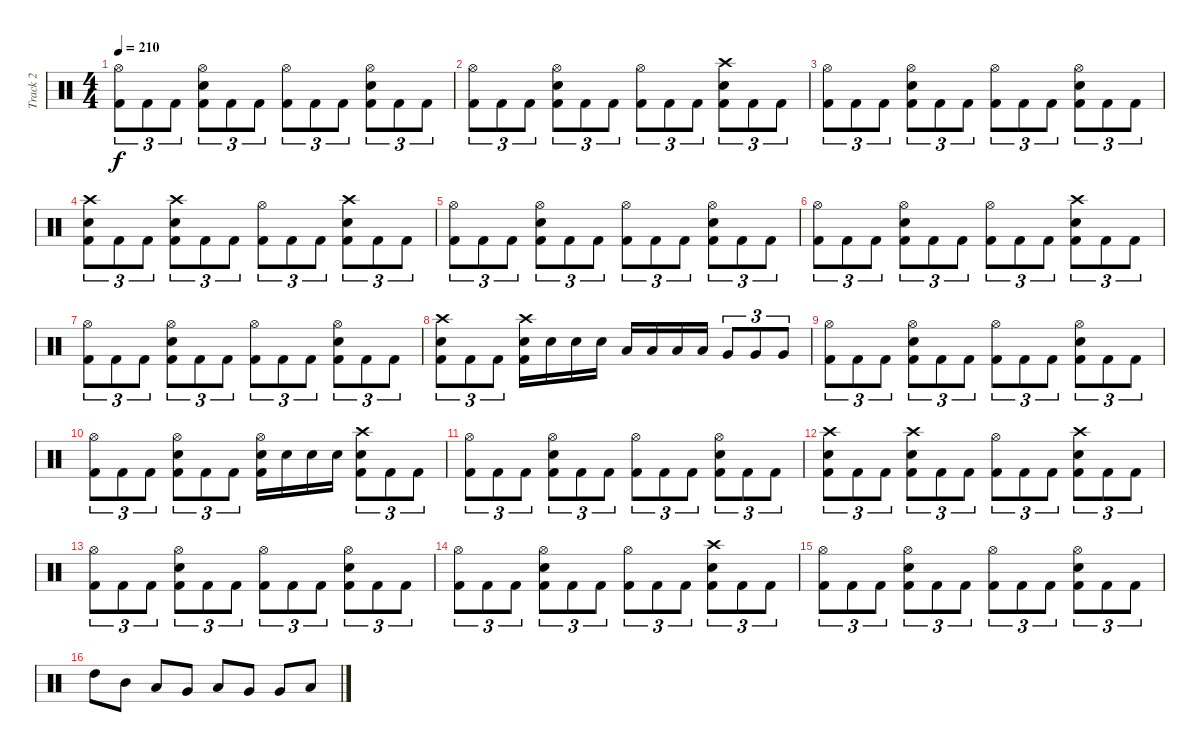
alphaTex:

\track ("Track 2" "Track 2") {instrument percussion}
\staff {score}
\articulation defaults
\ts (4 4)
\tempo 210
\clef neutral
\ks c
("Hi-Hat (open)" "Kick (hit) 2").8{tu (3 2) dy f} "Kick (hit) 2".8{tu (3 2)} "Kick (hit) 2".8{tu (3 2)} ("Hi-Hat (open)" "Snare (hit) 2" "Kick (hit) 2").8{tu (3 2)} "Kick (hit) 2".8{tu (3 2)} "Kick (hit) 2".8{tu (3 2)} ("Hi-Hat (open)" "Kick (hit) 2").8{tu (3 2)} "Kick (hit) 2".8{tu (3 2)} "Kick (hit) 2".8{tu (3 2)} ("Hi-Hat (open)" "Snare (hit) 2" "Kick (hit) 2").8{tu (3 2)} "Kick (hit) 2".8{tu (3 2)} "Kick (hit) 2".8{tu (3 2)} |
("Hi-Hat (open)" "Kick (hit) 2").8{tu (3 2)} "Kick (hit) 2".8{tu (3 2)} "Kick (hit) 2".8{tu (3 2)} ("Hi-Hat (open)" "Snare (hit) 2" "Kick (hit) 2").8{tu (3 2)} "Kick (hit) 2".8{tu (3 2)} "Kick (hit) 2".8{tu (3 2)} ("Hi-Hat (open)" "Kick (hit) 2").8{tu (3 2)} "Kick (hit) 2".8{tu (3 2)} "Kick (hit) 2".8{tu (3 2)} ("Crash high (hit)" "Snare (hit) 2" "Kick (hit) 2").8{tu (3 2)} "Kick (hit) 2".8{tu (3 2)} "Kick (hit) 2".8{tu (3 2)} |
("Hi-Hat (open)" "Kick (hit) 2").8{tu (3 2)} "Kick (hit) 2".8{tu (3 2)} "Kick (hit) 2".8{tu (3 2)} ("Hi-Hat (open)" "Snare (hit) 2" "Kick (hit) 2").8{tu (3 2)} "Kick (hit) 2".8{tu (3 2)} "Kick (hit) 2".8{tu (3 2)} ("Hi-Hat (open)" "Kick (hit) 2").8{tu (3 2)} "Kick (hit) 2".8{tu (3 2)} "Kick (hit) 2".8{tu (3 2)} ("Hi-Hat (open)" "Snare (hit) 2" "Kick (hit) 2").8{tu (3 2)} "Kick (hit) 2".8{tu (3 2)} "Kick (hit) 2".8{tu (3 2)} |
("Crash high (hit)" "Snare (hit) 2" "Kick (hit) 2").8{tu (3 2)} "Kick (hit) 2".8{tu (3 2)} "Kick (hit) 2".8{tu (3 2)} ("Crash high (hit)" "Snare (hit) 2" "Kick (hit) 2").8{tu (3 2)} "Kick (hit) 2".8{tu (3 2)} "Kick (hit) 2".8{tu (3 2)} ("Hi-Hat (open)" "Kick (hit) 2").8{tu (3 2)} "Kick (hit) 2".8{tu (3 2)} "Kick (hit) 2".8{tu (3 2)} ("Crash high (hit)" "Snare (hit) 2" "Kick (hit) 2").8{tu (3 2)} "Kick (hit) 2".8{tu (3 2)} "Kick (hit) 2".8{tu (3 2)} |
("Hi-Hat (open)" "Kick (hit) 2").8{tu (3 2)} "Kick (hit) 2".8{tu (3 2)} "Kick (hit) 2".8{tu (3 2)} ("Hi-Hat (open)" "Snare (hit) 2" "Kick (hit) 2").8{tu (3 2)} "Kick (hit) 2".8{tu (3 2)} "Kick (hit) 2".8{tu (3 2)} ("Hi-Hat (open)" "Kick (hit) 2").8{tu (3 2)} "Kick (hit) 2".8{tu (3 2)} "Kick (hit) 2".8{tu (3 2)} ("Hi-Hat (open)" "Snare (hit) 2" "Kick (hit) 2").8{tu (3 2)} "Kick (hit) 2".8{tu (3 2)} "Kick (hit) 2".8{tu (3 2)} |
("Hi-Hat (open)" "Kick (hit) 2").8{tu (3 2)} "Kick (hit) 2".8{tu (3 2)} "Kick (hit) 2".8{tu (3 2)} ("Hi-Hat (open)" "Snare (hit) 2" "Kick (hit) 2").8{tu (3 2)} "Kick (hit) 2".8{tu (3 2)} "Kick (hit) 2".8{tu (3 2)} ("Hi-Hat (open)" "Kick (hit) 2").8{tu (3 2)} "Kick (hit) 2".8{tu (3 2)} "Kick (hit) 2".8{tu (3 2)} ("Crash high (hit)" "Snare (hit) 2" "Kick (hit) 2").8{tu (3 2)} "Kick (hit) 2".8{tu (3 2)} "Kick (hit) 2".8{tu (3 2)} |
("Hi-Hat (open)" "Kick (hit) 2").8{tu (3 2)} "Kick (hit) 2".8{tu (3 2)} "Kick (hit) 2".8{tu (3 2)} ("Hi-Hat (open)" "Snare (hit) 2" "Kick (hit) 2").8{tu (3 2)} "Kick (hit) 2".8{tu (3 2)} "Kick (hit) 2".8{tu (3 2)} ("Hi-Hat (open)" "Kick (hit) 2").8{tu (3 2)} "Kick (hit) 2".8{tu (3 2)} "Kick (hit) 2".8{tu (3 2)} ("Hi-Hat (open)" "Snare (hit) 2" "Kick (hit) 2").8{tu (3 2)} "Kick (hit) 2".8{tu (3 2)} "Kick (hit) 2".8{tu (3 2)} |
("Crash high (hit)" "Snare (hit) 2" "Kick (hit) 2").8{tu (3 2)} "Kick (hit) 2".8{tu (3 2)} "Kick (hit) 2".8{tu (3 2)} ("Crash high (hit)" "Snare (hit) 2" "Kick (hit) 2").16 "Snare (hit) 2".16 "Snare (hit) 2".16 "Snare (hit) 2".16 "Low Tom (hit)".16 "Low Tom (hit)".16 "Low Tom (hit)".16 "Low Tom (hit)".16 "Very Low Tom (hit)".8{tu (3 2)} "Very Low Tom (hit)".8{tu (3 2)} "Very Low Tom (hit)".8{tu (3 2)} |
("Hi-Hat (open)" "Kick (hit) 2").8{tu (3 2)} "Kick (hit) 2".8{tu (3 2)} "Kick (hit) 2".8{tu (3 2)} ("Hi-Hat (open)" "Snare (hit) 2" "Kick (hit) 2").8{tu (3 2)} "Kick (hit) 2".8{tu (3 2)} "Kick (hit) 2".8{tu (3 2)} ("Hi-Hat (open)" "Kick (hit) 2").8{tu (3 2)} "Kick (hit) 2".8{tu (3 2)} "Kick (hit) 2".8{tu (3 2)} ("Hi-Hat (open)" "Snare (hit) 2" "Kick (hit) 2").8{tu (3 2)} "Kick (hit) 2".8{tu (3 2)} "Kick (hit) 2".8{tu (3 2)} |
("Hi-Hat (open)" "Kick (hit) 2").8{tu (3 2)} "Kick (hit) 2".8{tu (3 2)} "Kick (hit) 2".8{tu (3 2)} ("Hi-Hat (open)" "Snare (hit) 2" "Kick (hit) 2").8{tu (3 2)} "Kick (hit) 2".8{tu (3 2)} "Kick (hit) 2".8{tu (3 2)} ("Hi-Hat (open)" "Snare (hit) 2" "Kick (hit) 2").16 "Snare (hit) 2".16 "Snare (hit) 2".16 "Snare (hit) 2".16 ("Crash high (hit)" "Snare (hit) 2" "Kick (hit) 2").8{tu (3 2)} "Kick (hit) 2".8{tu (3 2)} "Kick (hit) 2".8{tu (3 2)} |
("Hi-Hat (open)" "Kick (hit) 2").8{tu (3 2)} "Kick (hit) 2".8{tu (3 2)} "Kick (hit) 2".8{tu (3 2)} ("Hi-Hat (open)" "Snare (hit) 2" "Kick (hit) 2").8{tu (3 2)} "Kick (hit) 2".8{tu (3 2)} "Kick (hit) 2".8{tu (3 2)} ("Hi-Hat (open)" "Kick (hit) 2").8{tu (3 2)} "Kick (hit) 2".8{tu (3 2)} "Kick (hit) 2".8{tu (3 2)} ("Hi-Hat (open)" "Snare (hit) 2" "Kick (hit) 2").8{tu (3 2)} "Kick (hit) 2".8{tu (3 2)} "Kick (hit) 2".8{tu (3 2)} |
("Crash high (hit)" "Snare (hit) 2" "Kick (hit) 2").8{tu (3 2)} "Kick (hit) 2".8{tu (3 2)} "Kick (hit) 2".8{tu (3 2)} ("Crash high (hit)" "Snare (hit) 2" "Kick (hit) 2").8{tu (3 2)} "Kick (hit) 2".8{tu (3 2)} "Kick (hit) 2".8{tu (3 2)} ("Hi-Hat (open)" "Kick (hit) 2").8{tu (3 2)} "Kick (hit) 2".8{tu (3 2)} "Kick (hit) 2".8{tu (3 2)} ("Crash high (hit)" "Snare (hit) 2" "Kick (hit) 2").8{tu (3 2)} "Kick (hit) 2".8{tu (3 2)} "Kick (hit) 2".8{tu (3 2)} |
("Hi-Hat (open)" "Kick (hit) 2").8{tu (3 2)} "Kick (hit) 2".8{tu (3 2)} "Kick (hit) 2".8{tu (3 2)} ("Hi-Hat (open)" "Snare (hit) 2" "Kick (hit) 2").8{tu (3 2)} "Kick (hit) 2".8{tu (3 2)} "Kick (hit) 2".8{tu (3 2)} ("Hi-Hat (open)" "Kick (hit) 2").8{tu (3 2)} "Kick (hit) 2".8{tu (3 2)} "Kick (hit) 2".8{tu (3 2)} ("Hi-Hat (open)" "Snare (hit) 2" "Kick (hit) 2").8{tu (3 2)} "Kick (hit) 2".8{tu (3 2)} "Kick (hit) 2".8{tu (3 2)} |
("Hi-Hat (open)" "Kick (hit) 2").8{tu (3 2)} "Kick (hit) 2".8{tu (3 2)} "Kick (hit) 2".8{tu (3 2)} ("Hi-Hat (open)" "Snare (hit) 2" "Kick (hit) 2").8{tu (3 2)} "Kick (hit) 2".8{tu (3 2)} "Kick (hit) 2".8{tu (3 2)} ("Hi-Hat (open)" "Kick (hit) 2").8{tu (3 2)} "Kick (hit) 2".8{tu (3 2)} "Kick (hit) 2".8{tu (3 2)} ("Crash high (hit)" "Snare (hit) 2" "Kick (hit) 2").8{tu (3 2)} "Kick (hit) 2".8{tu (3 2)} "Kick (hit) 2".8{tu (3 2)} |
("Hi-Hat (open)" "Kick (hit) 2").8{tu (3 2)} "Kick (hit) 2".8{tu (3 2)} "Kick (hit) 2".8{tu (3 2)} ("Hi-Hat (open)" "Snare (hit) 2" "Kick (hit) 2").8{tu (3 2)} "Kick (hit) 2".8{tu (3 2)} "Kick (hit) 2".8{tu (3 2)} ("Hi-Hat (open)" "Kick (hit) 2").8{tu (3 2)} "Kick (hit) 2".8{tu (3 2)} "Kick (hit) 2".8{tu (3 2)} ("Hi-Hat (open)" "Snare (hit) 2" "Kick (hit) 2").8{tu (3 2)} "Kick (hit) 2".8{tu (3 2)} "Kick (hit) 2".8{tu (3 2)} |
"High Tom (hit)".8 "Mid Tom (hit)".8 "Low Tom (hit)".8 "Very Low Tom (hit)".8 "Low Tom (hit)".8 "Very Low Tom (hit)".8 "Very Low Tom (hit)".8 "Low Floor Tom (hit)".8
